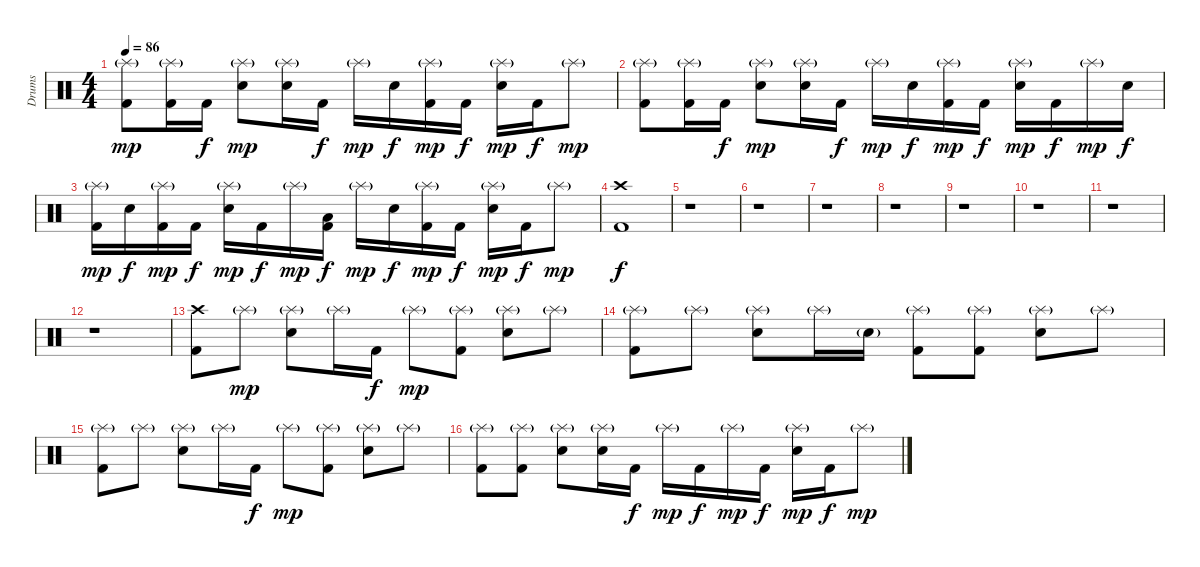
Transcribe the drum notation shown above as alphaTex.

\track ("Drums" "Drums") {instrument percussion}
\staff {score}
\articulation defaults
\ts (4 4)
\tempo 86
\clef neutral
\ks c
("Splash (hit)"{g} "Kick (hit) 2").8{dy mp} ("Splash (hit)"{g} "Kick (hit) 2").16 "Kick (hit) 2".16{dy f} ("Splash (hit)"{g} "Snare (hit) 2").8{dy mp} ("Splash (hit)"{g} "Snare (hit) 2").16 "Kick (hit) 2".16{dy f} "Splash (hit)"{g}.16{dy mp} "Snare (hit) 2".16{dy f} ("Splash (hit)"{g} "Kick (hit) 2").16{dy mp} "Kick (hit) 2".16{dy f} ("Splash (hit)"{g} "Snare (hit) 2").16{dy mp} "Kick (hit) 2".16{dy f} "Splash (hit)"{g}.8{dy mp} |
("Splash (hit)"{g} "Kick (hit) 2").8 ("Splash (hit)"{g} "Kick (hit) 2").16 "Kick (hit) 2".16{dy f} ("Splash (hit)"{g} "Snare (hit) 2").8{dy mp} ("Splash (hit)"{g} "Snare (hit) 2").16 "Kick (hit) 2".16{dy f} "Splash (hit)"{g}.16{dy mp} "Snare (hit) 2".16{dy f} ("Splash (hit)"{g} "Kick (hit) 2").16{dy mp} "Kick (hit) 2".16{dy f} ("Splash (hit)"{g} "Snare (hit) 2").16{dy mp} "Kick (hit) 2".16{dy f} "Splash (hit)"{g}.16{dy mp} "Snare (hit) 2".16{dy f} |
("Splash (hit)"{g} "Kick (hit) 2").16{dy mp} "Snare (hit) 2".16{dy f} ("Splash (hit)"{g} "Kick (hit) 2").16{dy mp} "Kick (hit) 2".16{dy f} ("Splash (hit)"{g} "Snare (hit) 2").16{dy mp} "Kick (hit) 2".16{dy f} "Splash (hit)"{g}.16{dy mp} ("Low Tom (hit)" "Kick (hit) 2").16{dy f} "Splash (hit)"{g}.16{dy mp} "Snare (hit) 2".16{dy f} ("Splash (hit)"{g} "Kick (hit) 2").16{dy mp} "Kick (hit) 2".16{dy f} ("Splash (hit)"{g} "Snare (hit) 2").16{dy mp} "Kick (hit) 2".16{dy f} "Splash (hit)"{g}.8{dy mp} |
("Crash high (hit)" "Kick (hit) 2").1{dy f} |
r.1 |
r.1 |
r.1 |
r.1 |
r.1 |
r.1 |
r.1 |
r.1 |
("Crash high (hit)" "Kick (hit) 2").8 "Splash (hit)"{g}.8{dy mp} ("Splash (hit)"{g} "Snare (hit) 2").8 "Splash (hit)"{g}.16 "Kick (hit) 2".16{dy f} "Splash (hit)"{g}.8{dy mp} ("Splash (hit)"{g} "Kick (hit) 2").8 ("Splash (hit)"{g} "Snare (hit) 2").8 "Splash (hit)"{g}.8 |
("Splash (hit)"{g} "Kick (hit) 2").8 "Splash (hit)"{g}.8 ("Splash (hit)"{g} "Snare (hit) 2").8 "Splash (hit)"{g}.16 "Snare (hit) 2"{g}.16 ("Splash (hit)"{g} "Kick (hit) 2").8 ("Splash (hit)"{g} "Kick (hit) 2").8 ("Splash (hit)"{g} "Snare (hit) 2").8 "Splash (hit)"{g}.8 |
("Splash (hit)"{g} "Kick (hit) 2").8 "Splash (hit)"{g}.8 ("Splash (hit)"{g} "Snare (hit) 2").8 "Splash (hit)"{g}.16 "Kick (hit) 2".16{dy f} "Splash (hit)"{g}.8{dy mp} ("Splash (hit)"{g} "Kick (hit) 2").8 ("Splash (hit)"{g} "Snare (hit) 2").8 "Splash (hit)"{g}.8 |
("Splash (hit)"{g} "Kick (hit) 2").8 ("Splash (hit)"{g} "Kick (hit) 2").8 ("Splash (hit)"{g} "Snare (hit) 2").8 ("Splash (hit)"{g} "Snare (hit) 2").16 "Kick (hit) 2".16{dy f} "Splash (hit)"{g}.16{dy mp} "Kick (hit) 2".16{dy f} "Splash (hit)"{g}.16{dy mp} "Kick (hit) 2".16{dy f} ("Splash (hit)"{g} "Snare (hit) 2").16{dy mp} "Kick (hit) 2".16{dy f} "Splash (hit)"{g}.8{dy mp}
